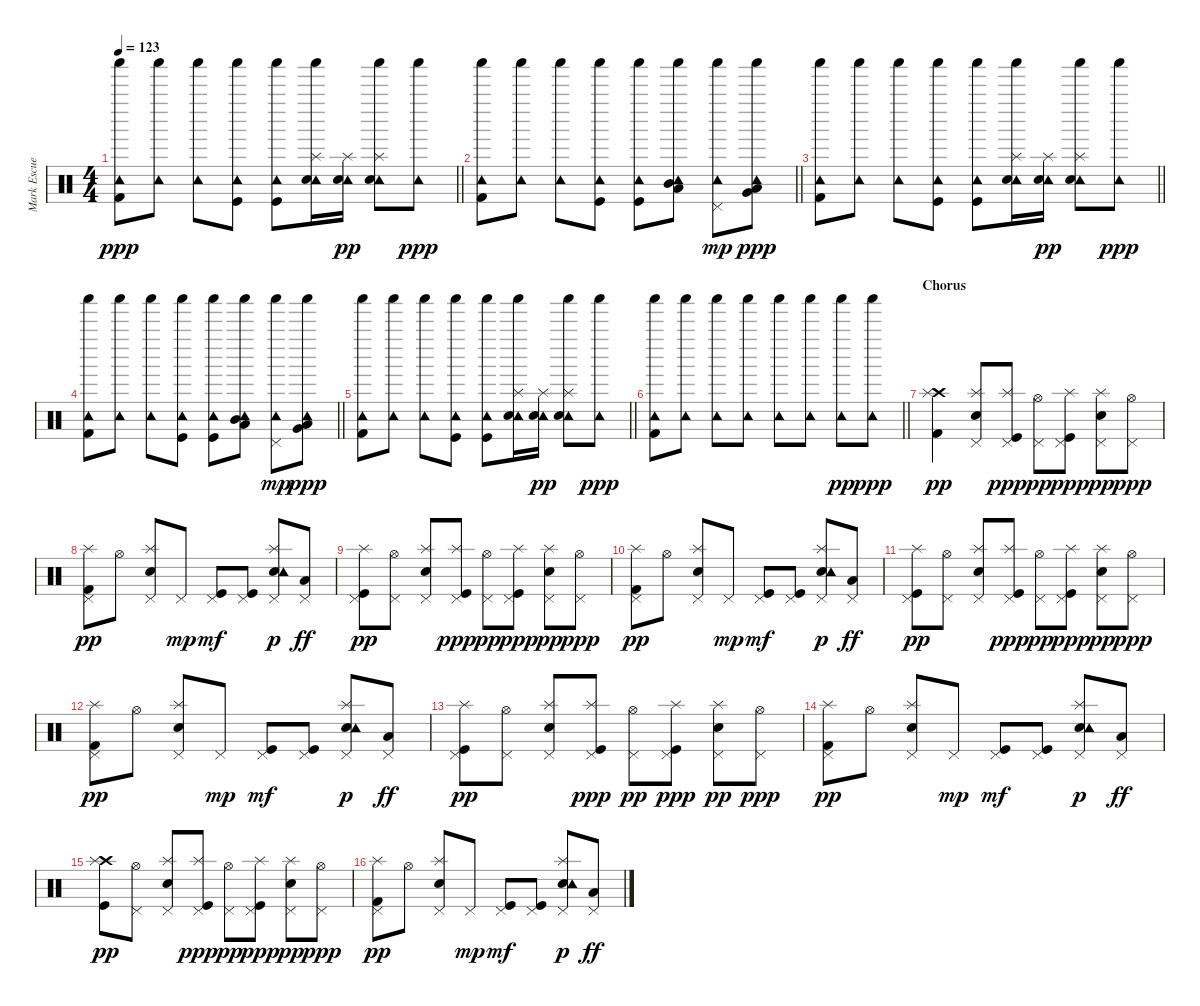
\track ("Mark Escueta - Drums" "Mark Escue") {instrument percussion}
\staff {score}
\articulation defaults
\ts (4 4)
\tempo 123
\clef neutral
\barLineRight lightlight
\ks c
("Shaker (hit)" "Tambourine (hit)" "Kick (hit) 2").8{dy ppp} ("Shaker (hit)" "Tambourine (hit)").8 ("Shaker (hit)" "Tambourine (hit)").8 ("Shaker (hit)" "Tambourine (hit)" "Kick (hit)").8 ("Shaker (hit)" "Tambourine (hit)" "Kick (hit)").8 ("Shaker (hit)" "Tambourine (hit)" "Electric Snare (hit)" "Splash (hit)").16 ("Tambourine (hit)" "Electric Snare (hit)" "Splash (hit)").16{dy pp} ("Shaker (hit)" "Tambourine (hit)" "Electric Snare (hit)" "Splash (hit)").8 ("Shaker (hit)" "Tambourine (hit)").8{dy ppp} |
\barLineRight lightlight
("Shaker (hit)" "Tambourine (hit)" "Kick (hit) 2").8 ("Shaker (hit)" "Tambourine (hit)").8 ("Shaker (hit)" "Tambourine (hit)").8 ("Shaker (hit)" "Tambourine (hit)" "Kick (hit)").8 ("Shaker (hit)" "Tambourine (hit)" "Kick (hit)").8 ("Shaker (hit)" "Tambourine (hit)" "Low Tom (hit)" "Mid Tom (hit)").8{bu 60} ("Shaker (hit)" "Tambourine (hit)" "Pedal Hi-Hat (hit)").8{dy mp} ("Shaker (hit)" "Tambourine (hit)" "Very Low Tom (hit)" "Low Tom (hit)").8{bu 60 dy ppp} |
\barLineRight lightlight
("Shaker (hit)" "Tambourine (hit)" "Kick (hit) 2").8 ("Shaker (hit)" "Tambourine (hit)").8 ("Shaker (hit)" "Tambourine (hit)").8 ("Shaker (hit)" "Tambourine (hit)" "Kick (hit)").8 ("Shaker (hit)" "Tambourine (hit)" "Kick (hit)").8 ("Shaker (hit)" "Tambourine (hit)" "Electric Snare (hit)" "Splash (hit)").16 ("Tambourine (hit)" "Electric Snare (hit)" "Splash (hit)").16{dy pp} ("Shaker (hit)" "Tambourine (hit)" "Electric Snare (hit)" "Splash (hit)").8 ("Shaker (hit)" "Tambourine (hit)").8{dy ppp} |
\barLineRight lightlight
("Shaker (hit)" "Tambourine (hit)" "Kick (hit) 2").8 ("Shaker (hit)" "Tambourine (hit)").8 ("Shaker (hit)" "Tambourine (hit)").8 ("Shaker (hit)" "Tambourine (hit)" "Kick (hit)").8 ("Shaker (hit)" "Tambourine (hit)" "Kick (hit)").8 ("Shaker (hit)" "Tambourine (hit)" "Low Tom (hit)" "Mid Tom (hit)").8{bu 60} ("Shaker (hit)" "Tambourine (hit)" "Pedal Hi-Hat (hit)").8{dy mp} ("Shaker (hit)" "Tambourine (hit)" "Very Low Tom (hit)" "Low Tom (hit)").8{bu 60 dy ppp} |
\barLineRight lightlight
("Shaker (hit)" "Tambourine (hit)" "Kick (hit) 2").8 ("Shaker (hit)" "Tambourine (hit)").8 ("Shaker (hit)" "Tambourine (hit)").8 ("Shaker (hit)" "Tambourine (hit)" "Kick (hit)").8 ("Shaker (hit)" "Tambourine (hit)" "Kick (hit)").8 ("Shaker (hit)" "Tambourine (hit)" "Electric Snare (hit)" "Splash (hit)").16 ("Tambourine (hit)" "Electric Snare (hit)" "Splash (hit)").16{dy pp} ("Shaker (hit)" "Tambourine (hit)" "Electric Snare (hit)" "Splash (hit)").8 ("Shaker (hit)" "Tambourine (hit)").8{dy ppp} |
\barLineRight lightlight
("Shaker (hit)" "Tambourine (hit)" "Kick (hit) 2").8 ("Shaker (hit)" "Tambourine (hit)").8 ("Shaker (hit)" "Tambourine (hit)").8 ("Shaker (hit)" "Tambourine (hit)").8 ("Shaker (hit)" "Tambourine (hit)").8 ("Shaker (hit)" "Tambourine (hit)").8 ("Shaker (hit)" "Tambourine (hit)").8{dy pp} ("Shaker (hit)" "Tambourine (hit)").8{dy ppp} |
\section ("" "Chorus")
("Crash high (hit)" "Kick (hit) 2" "Splash (hit)").4{dy pp} ("Pedal Hi-Hat (hit)" "Electric Snare (hit)" "Splash (hit)").8 ("Pedal Hi-Hat (hit)" "Kick (hit)" "Splash (hit)").8{dy ppp} ("Pedal Hi-Hat (hit)" "Hi-Hat (open)").8{dy pp} ("Pedal Hi-Hat (hit)" "Kick (hit)" "Splash (hit)").8{dy ppp} ("Pedal Hi-Hat (hit)" "Electric Snare (hit)" "Splash (hit)").8{dy pp} ("Pedal Hi-Hat (hit)" "Hi-Hat (open)").8{dy ppp} |
("Pedal Hi-Hat (hit)" "Kick (hit) 2" "Splash (hit)").8{dy pp} "Hi-Hat (open)".8 ("Pedal Hi-Hat (hit)" "Electric Snare (hit)" "Splash (hit)").8 "Pedal Hi-Hat (hit)".8{dy mp} ("Pedal Hi-Hat (hit)" "Kick (hit)").8{dy mf} ("Pedal Hi-Hat (hit)" "Kick (hit)").8 ("Pedal Hi-Hat (hit)" "Electric Snare (hit)" "Splash (hit)" "Tambourine (hit)").8{dy p} ("Pedal Hi-Hat (hit)" "Low Tom (hit)").8{dy ff} |
("Pedal Hi-Hat (hit)" "Kick (hit)" "Splash (hit)").8{dy pp} ("Pedal Hi-Hat (hit)" "Hi-Hat (open)").8 ("Pedal Hi-Hat (hit)" "Electric Snare (hit)" "Splash (hit)").8 ("Pedal Hi-Hat (hit)" "Kick (hit)" "Splash (hit)").8{dy ppp} ("Pedal Hi-Hat (hit)" "Hi-Hat (open)").8{dy pp} ("Pedal Hi-Hat (hit)" "Kick (hit)" "Splash (hit)").8{dy ppp} ("Pedal Hi-Hat (hit)" "Electric Snare (hit)" "Splash (hit)").8{dy pp} ("Pedal Hi-Hat (hit)" "Hi-Hat (open)").8{dy ppp} |
("Pedal Hi-Hat (hit)" "Kick (hit) 2" "Splash (hit)").8{dy pp} "Hi-Hat (open)".8 ("Pedal Hi-Hat (hit)" "Electric Snare (hit)" "Splash (hit)").8 "Pedal Hi-Hat (hit)".8{dy mp} ("Pedal Hi-Hat (hit)" "Kick (hit)").8{dy mf} ("Pedal Hi-Hat (hit)" "Kick (hit)").8 ("Pedal Hi-Hat (hit)" "Electric Snare (hit)" "Splash (hit)" "Tambourine (hit)").8{dy p} ("Pedal Hi-Hat (hit)" "Low Tom (hit)").8{dy ff} |
("Pedal Hi-Hat (hit)" "Kick (hit)" "Splash (hit)").8{dy pp} ("Pedal Hi-Hat (hit)" "Hi-Hat (open)").8 ("Pedal Hi-Hat (hit)" "Electric Snare (hit)" "Splash (hit)").8 ("Pedal Hi-Hat (hit)" "Kick (hit)" "Splash (hit)").8{dy ppp} ("Pedal Hi-Hat (hit)" "Hi-Hat (open)").8{dy pp} ("Pedal Hi-Hat (hit)" "Kick (hit)" "Splash (hit)").8{dy ppp} ("Pedal Hi-Hat (hit)" "Electric Snare (hit)" "Splash (hit)").8{dy pp} ("Pedal Hi-Hat (hit)" "Hi-Hat (open)").8{dy ppp} |
("Pedal Hi-Hat (hit)" "Kick (hit) 2" "Splash (hit)").8{dy pp} "Hi-Hat (open)".8 ("Pedal Hi-Hat (hit)" "Electric Snare (hit)" "Splash (hit)").8 "Pedal Hi-Hat (hit)".8{dy mp} ("Pedal Hi-Hat (hit)" "Kick (hit)").8{dy mf} ("Pedal Hi-Hat (hit)" "Kick (hit)").8 ("Pedal Hi-Hat (hit)" "Electric Snare (hit)" "Splash (hit)" "Tambourine (hit)").8{dy p} ("Pedal Hi-Hat (hit)" "Low Tom (hit)").8{dy ff} |
("Pedal Hi-Hat (hit)" "Kick (hit)" "Splash (hit)").8{dy pp} ("Pedal Hi-Hat (hit)" "Hi-Hat (open)").8 ("Pedal Hi-Hat (hit)" "Electric Snare (hit)" "Splash (hit)").8 ("Pedal Hi-Hat (hit)" "Kick (hit)" "Splash (hit)").8{dy ppp} ("Pedal Hi-Hat (hit)" "Hi-Hat (open)").8{dy pp} ("Pedal Hi-Hat (hit)" "Kick (hit)" "Splash (hit)").8{dy ppp} ("Pedal Hi-Hat (hit)" "Electric Snare (hit)" "Splash (hit)").8{dy pp} ("Pedal Hi-Hat (hit)" "Hi-Hat (open)").8{dy ppp} |
("Pedal Hi-Hat (hit)" "Kick (hit) 2" "Splash (hit)").8{dy pp} "Hi-Hat (open)".8 ("Pedal Hi-Hat (hit)" "Electric Snare (hit)" "Splash (hit)").8 "Pedal Hi-Hat (hit)".8{dy mp} ("Pedal Hi-Hat (hit)" "Kick (hit)").8{dy mf} ("Pedal Hi-Hat (hit)" "Kick (hit)").8 ("Pedal Hi-Hat (hit)" "Electric Snare (hit)" "Splash (hit)" "Tambourine (hit)").8{dy p} ("Pedal Hi-Hat (hit)" "Low Tom (hit)").8{dy ff} |
("Crash high (hit)" "Kick (hit)" "Splash (hit)").8{dy pp} ("Pedal Hi-Hat (hit)" "Hi-Hat (open)").8 ("Pedal Hi-Hat (hit)" "Electric Snare (hit)" "Splash (hit)").8 ("Pedal Hi-Hat (hit)" "Kick (hit)" "Splash (hit)").8{dy ppp} ("Pedal Hi-Hat (hit)" "Hi-Hat (open)").8{dy pp} ("Pedal Hi-Hat (hit)" "Kick (hit)" "Splash (hit)").8{dy ppp} ("Pedal Hi-Hat (hit)" "Electric Snare (hit)" "Splash (hit)").8{dy pp} ("Pedal Hi-Hat (hit)" "Hi-Hat (open)").8{dy ppp} |
("Pedal Hi-Hat (hit)" "Kick (hit) 2" "Splash (hit)").8{dy pp} "Hi-Hat (open)".8 ("Pedal Hi-Hat (hit)" "Electric Snare (hit)" "Splash (hit)").8 "Pedal Hi-Hat (hit)".8{dy mp} ("Pedal Hi-Hat (hit)" "Kick (hit)").8{dy mf} ("Pedal Hi-Hat (hit)" "Kick (hit)").8 ("Pedal Hi-Hat (hit)" "Electric Snare (hit)" "Splash (hit)" "Tambourine (hit)").8{dy p} ("Pedal Hi-Hat (hit)" "Low Tom (hit)").8{dy ff}
